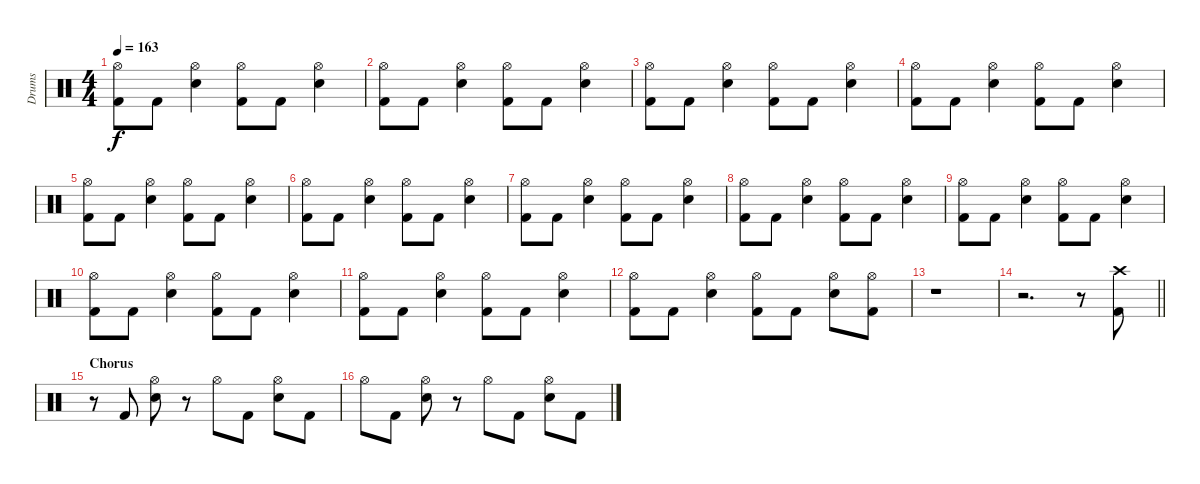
\track ("Drums" "Drums") {instrument percussion}
\staff {score}
\articulation defaults
\ts (4 4)
\tempo 163
\clef neutral
\ks c
("Hi-Hat (open)" "Kick (hit) 2").8{dy f} "Kick (hit) 2".8 ("Hi-Hat (open)" "Snare (hit) 2").4 ("Hi-Hat (open)" "Kick (hit) 2").8 "Kick (hit) 2".8 ("Hi-Hat (open)" "Snare (hit) 2").4 |
("Hi-Hat (open)" "Kick (hit) 2").8 "Kick (hit) 2".8 ("Hi-Hat (open)" "Snare (hit) 2").4 ("Hi-Hat (open)" "Kick (hit) 2").8 "Kick (hit) 2".8 ("Hi-Hat (open)" "Snare (hit) 2").4 |
("Hi-Hat (open)" "Kick (hit) 2").8 "Kick (hit) 2".8 ("Hi-Hat (open)" "Snare (hit) 2").4 ("Hi-Hat (open)" "Kick (hit) 2").8 "Kick (hit) 2".8 ("Hi-Hat (open)" "Snare (hit) 2").4 |
("Hi-Hat (open)" "Kick (hit) 2").8 "Kick (hit) 2".8 ("Hi-Hat (open)" "Snare (hit) 2").4 ("Hi-Hat (open)" "Kick (hit) 2").8 "Kick (hit) 2".8 ("Hi-Hat (open)" "Snare (hit) 2").4 |
("Hi-Hat (open)" "Kick (hit) 2").8 "Kick (hit) 2".8 ("Hi-Hat (open)" "Snare (hit) 2").4 ("Hi-Hat (open)" "Kick (hit) 2").8 "Kick (hit) 2".8 ("Hi-Hat (open)" "Snare (hit) 2").4 |
("Hi-Hat (open)" "Kick (hit) 2").8 "Kick (hit) 2".8 ("Hi-Hat (open)" "Snare (hit) 2").4 ("Hi-Hat (open)" "Kick (hit) 2").8 "Kick (hit) 2".8 ("Hi-Hat (open)" "Snare (hit) 2").4 |
("Hi-Hat (open)" "Kick (hit) 2").8 "Kick (hit) 2".8 ("Hi-Hat (open)" "Snare (hit) 2").4 ("Hi-Hat (open)" "Kick (hit) 2").8 "Kick (hit) 2".8 ("Hi-Hat (open)" "Snare (hit) 2").4 |
("Hi-Hat (open)" "Kick (hit) 2").8 "Kick (hit) 2".8 ("Hi-Hat (open)" "Snare (hit) 2").4 ("Hi-Hat (open)" "Kick (hit) 2").8 "Kick (hit) 2".8 ("Hi-Hat (open)" "Snare (hit) 2").4 |
("Hi-Hat (open)" "Kick (hit) 2").8 "Kick (hit) 2".8 ("Hi-Hat (open)" "Snare (hit) 2").4 ("Hi-Hat (open)" "Kick (hit) 2").8 "Kick (hit) 2".8 ("Hi-Hat (open)" "Snare (hit) 2").4 |
("Hi-Hat (open)" "Kick (hit) 2").8 "Kick (hit) 2".8 ("Hi-Hat (open)" "Snare (hit) 2").4 ("Hi-Hat (open)" "Kick (hit) 2").8 "Kick (hit) 2".8 ("Hi-Hat (open)" "Snare (hit) 2").4 |
("Hi-Hat (open)" "Kick (hit) 2").8 "Kick (hit) 2".8 ("Hi-Hat (open)" "Snare (hit) 2").4 ("Hi-Hat (open)" "Kick (hit) 2").8 "Kick (hit) 2".8 ("Hi-Hat (open)" "Snare (hit) 2").4 |
("Hi-Hat (open)" "Kick (hit) 2").8 "Kick (hit) 2".8 ("Hi-Hat (open)" "Snare (hit) 2").4 ("Hi-Hat (open)" "Kick (hit) 2").8 "Kick (hit) 2".8 ("Hi-Hat (open)" "Snare (hit) 2").8 ("Hi-Hat (open)" "Kick (hit) 2").8 |
r.1 |
\barLineRight lightlight
r.2{d} r.8 ("Crash high (hit)" "Kick (hit) 2").8 |
\section ("" "Chorus")
r.8 "Kick (hit) 2".8 ("Hi-Hat (open)" "Snare (hit) 2").8 r.8 "Hi-Hat (open)".8 "Kick (hit) 2".8 ("Hi-Hat (open)" "Snare (hit) 2").8 "Kick (hit) 2".8 |
"Hi-Hat (open)".8 "Kick (hit) 2".8 ("Hi-Hat (open)" "Snare (hit) 2").8 r.8 "Hi-Hat (open)".8 "Kick (hit) 2".8 ("Hi-Hat (open)" "Snare (hit) 2").8 "Kick (hit) 2".8
